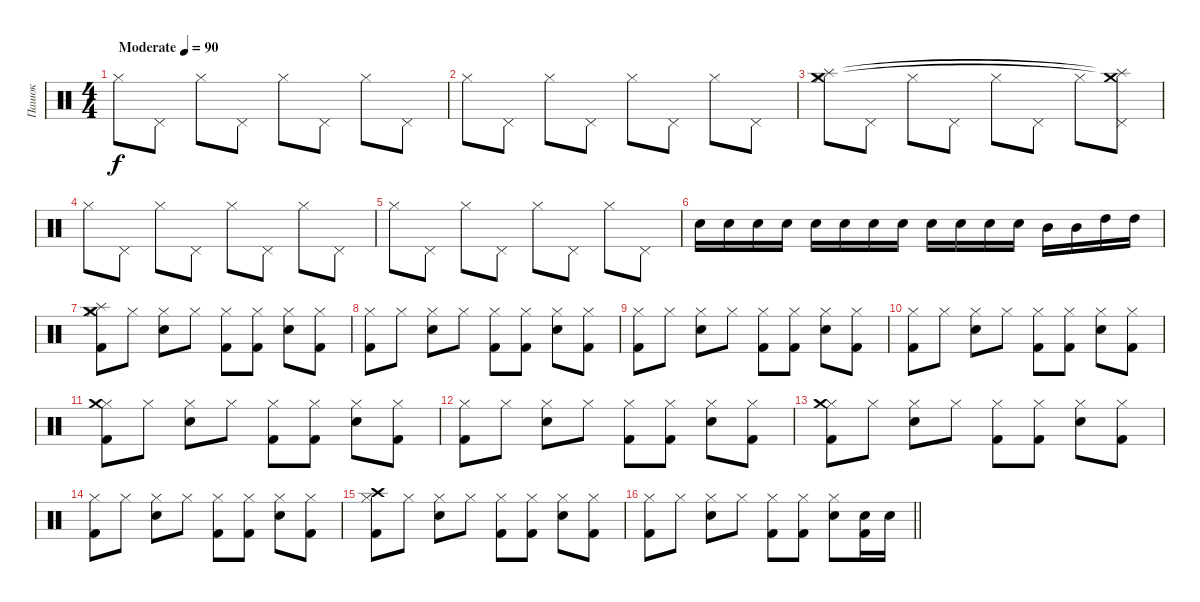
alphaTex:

\track ("Пашок" "Пашок") {instrument percussion}
\staff {score}
\articulation defaults
\ts (4 4)
\tempo (90 "Moderate")
\clef neutral
\ks c "Hi-Hat (closed)".8{dy f} "Pedal Hi-Hat (hit)".8 "Hi-Hat (closed)".8 "Pedal Hi-Hat (hit)".8 "Hi-Hat (closed)".8 "Pedal Hi-Hat (hit)".8 "Hi-Hat (closed)".8 "Pedal Hi-Hat (hit)".8
|
"Hi-Hat (closed)".8 "Pedal Hi-Hat (hit)".8 "Hi-Hat (closed)".8 "Pedal Hi-Hat (hit)".8 "Hi-Hat (closed)".8 "Pedal Hi-Hat (hit)".8 "Hi-Hat (closed)".8 "Pedal Hi-Hat (hit)".8 |
("Hi-Hat (closed)" "Crash medium (hit)" "Splash (hit)").8 "Pedal Hi-Hat (hit)".8 "Hi-Hat (closed)".8 "Pedal Hi-Hat (hit)".8 "Hi-Hat (closed)".8 "Pedal Hi-Hat (hit)".8 "Hi-Hat (closed)".8 ("Pedal Hi-Hat (hit)" "Crash medium (hit)"{t} "Splash (hit)"{t}).8 |
"Hi-Hat (closed)".8 "Pedal Hi-Hat (hit)".8 "Hi-Hat (closed)".8 "Pedal Hi-Hat (hit)".8 "Hi-Hat (closed)".8 "Pedal Hi-Hat (hit)".8 "Hi-Hat (closed)".8 "Pedal Hi-Hat (hit)".8 |
"Hi-Hat (closed)".8 "Pedal Hi-Hat (hit)".8 "Hi-Hat (closed)".8 "Pedal Hi-Hat (hit)".8 "Hi-Hat (closed)".8 "Pedal Hi-Hat (hit)".8 "Hi-Hat (closed)".8 "Pedal Hi-Hat (hit)".8 |
"Electric Snare (hit)".16 "Electric Snare (hit)".16 "Electric Snare (hit)".16 "Electric Snare (hit)".16 "Electric Snare (hit)".16 "Electric Snare (hit)".16 "Electric Snare (hit)".16 "Electric Snare (hit)".16 "Electric Snare (hit)".16 "Electric Snare (hit)".16 "Electric Snare (hit)".16 "Electric Snare (hit)".16 "Mid Tom (hit)".16 "Mid Tom (hit)".16 "High Tom (hit)".16 "High Tom (hit)".16 |
("Hi-Hat (closed)" "Kick (hit) 2" "Crash medium (hit)" "Splash (hit)").8 "Hi-Hat (closed)".8 ("Hi-Hat (closed)" "Electric Snare (hit)").8 "Hi-Hat (closed)".8 ("Hi-Hat (closed)" "Kick (hit) 2").8 ("Hi-Hat (closed)" "Kick (hit) 2").8 ("Hi-Hat (closed)" "Electric Snare (hit)").8 ("Hi-Hat (closed)" "Kick (hit) 2").8 |
("Hi-Hat (closed)" "Kick (hit) 2").8 "Hi-Hat (closed)".8 ("Hi-Hat (closed)" "Electric Snare (hit)").8 "Hi-Hat (closed)".8 ("Hi-Hat (closed)" "Kick (hit) 2").8 ("Hi-Hat (closed)" "Kick (hit) 2").8 ("Hi-Hat (closed)" "Electric Snare (hit)").8 ("Hi-Hat (closed)" "Kick (hit) 2").8 |
("Hi-Hat (closed)" "Kick (hit) 2").8 "Hi-Hat (closed)".8 ("Hi-Hat (closed)" "Electric Snare (hit)").8 "Hi-Hat (closed)".8 ("Hi-Hat (closed)" "Kick (hit) 2").8 ("Hi-Hat (closed)" "Kick (hit) 2").8 ("Hi-Hat (closed)" "Electric Snare (hit)").8 ("Hi-Hat (closed)" "Kick (hit) 2").8 |
("Hi-Hat (closed)" "Kick (hit) 2").8 "Hi-Hat (closed)".8 ("Hi-Hat (closed)" "Electric Snare (hit)").8 "Hi-Hat (closed)".8 ("Hi-Hat (closed)" "Kick (hit) 2").8 ("Hi-Hat (closed)" "Kick (hit) 2").8 ("Hi-Hat (closed)" "Electric Snare (hit)").8 ("Hi-Hat (closed)" "Kick (hit) 2").8 |
("Hi-Hat (closed)" "Kick (hit) 2" "Crash medium (hit)").8 "Hi-Hat (closed)".8 ("Hi-Hat (closed)" "Electric Snare (hit)").8 "Hi-Hat (closed)".8 ("Hi-Hat (closed)" "Kick (hit) 2").8 ("Hi-Hat (closed)" "Kick (hit) 2").8 ("Hi-Hat (closed)" "Electric Snare (hit)").8 ("Hi-Hat (closed)" "Kick (hit) 2").8 |
("Hi-Hat (closed)" "Kick (hit) 2").8 "Hi-Hat (closed)".8 ("Hi-Hat (closed)" "Electric Snare (hit)").8 "Hi-Hat (closed)".8 ("Hi-Hat (closed)" "Kick (hit) 2").8 ("Hi-Hat (closed)" "Kick (hit) 2").8 ("Hi-Hat (closed)" "Electric Snare (hit)").8 ("Hi-Hat (closed)" "Kick (hit) 2").8 |
("Hi-Hat (closed)" "Kick (hit) 2" "Crash medium (hit)").8 "Hi-Hat (closed)".8 ("Hi-Hat (closed)" "Electric Snare (hit)").8 "Hi-Hat (closed)".8 ("Hi-Hat (closed)" "Kick (hit) 2").8 ("Hi-Hat (closed)" "Kick (hit) 2").8 ("Hi-Hat (closed)" "Electric Snare (hit)").8 ("Hi-Hat (closed)" "Kick (hit) 2").8 |
("Hi-Hat (closed)" "Kick (hit) 2").8 "Hi-Hat (closed)".8 ("Hi-Hat (closed)" "Electric Snare (hit)").8 "Hi-Hat (closed)".8 ("Hi-Hat (closed)" "Kick (hit) 2").8 ("Hi-Hat (closed)" "Kick (hit) 2").8 ("Hi-Hat (closed)" "Electric Snare (hit)").8 ("Hi-Hat (closed)" "Kick (hit) 2").8 |
("Hi-Hat (closed)" "Kick (hit) 2" "Crash high (hit)").8 "Hi-Hat (closed)".8 ("Hi-Hat (closed)" "Electric Snare (hit)").8 "Hi-Hat (closed)".8 ("Hi-Hat (closed)" "Kick (hit) 2").8 ("Hi-Hat (closed)" "Kick (hit) 2").8 ("Hi-Hat (closed)" "Electric Snare (hit)").8 ("Hi-Hat (closed)" "Kick (hit) 2").8 |
\barLineRight lightlight
("Hi-Hat (closed)" "Kick (hit) 2").8 "Hi-Hat (closed)".8 ("Hi-Hat (closed)" "Electric Snare (hit)").8 "Hi-Hat (closed)".8 ("Hi-Hat (closed)" "Kick (hit) 2").8 ("Hi-Hat (closed)" "Kick (hit) 2").8 ("Hi-Hat (closed)" "Electric Snare (hit)").8 ("Electric Snare (hit)" "Kick (hit) 2").16 "Electric Snare (hit)".16
